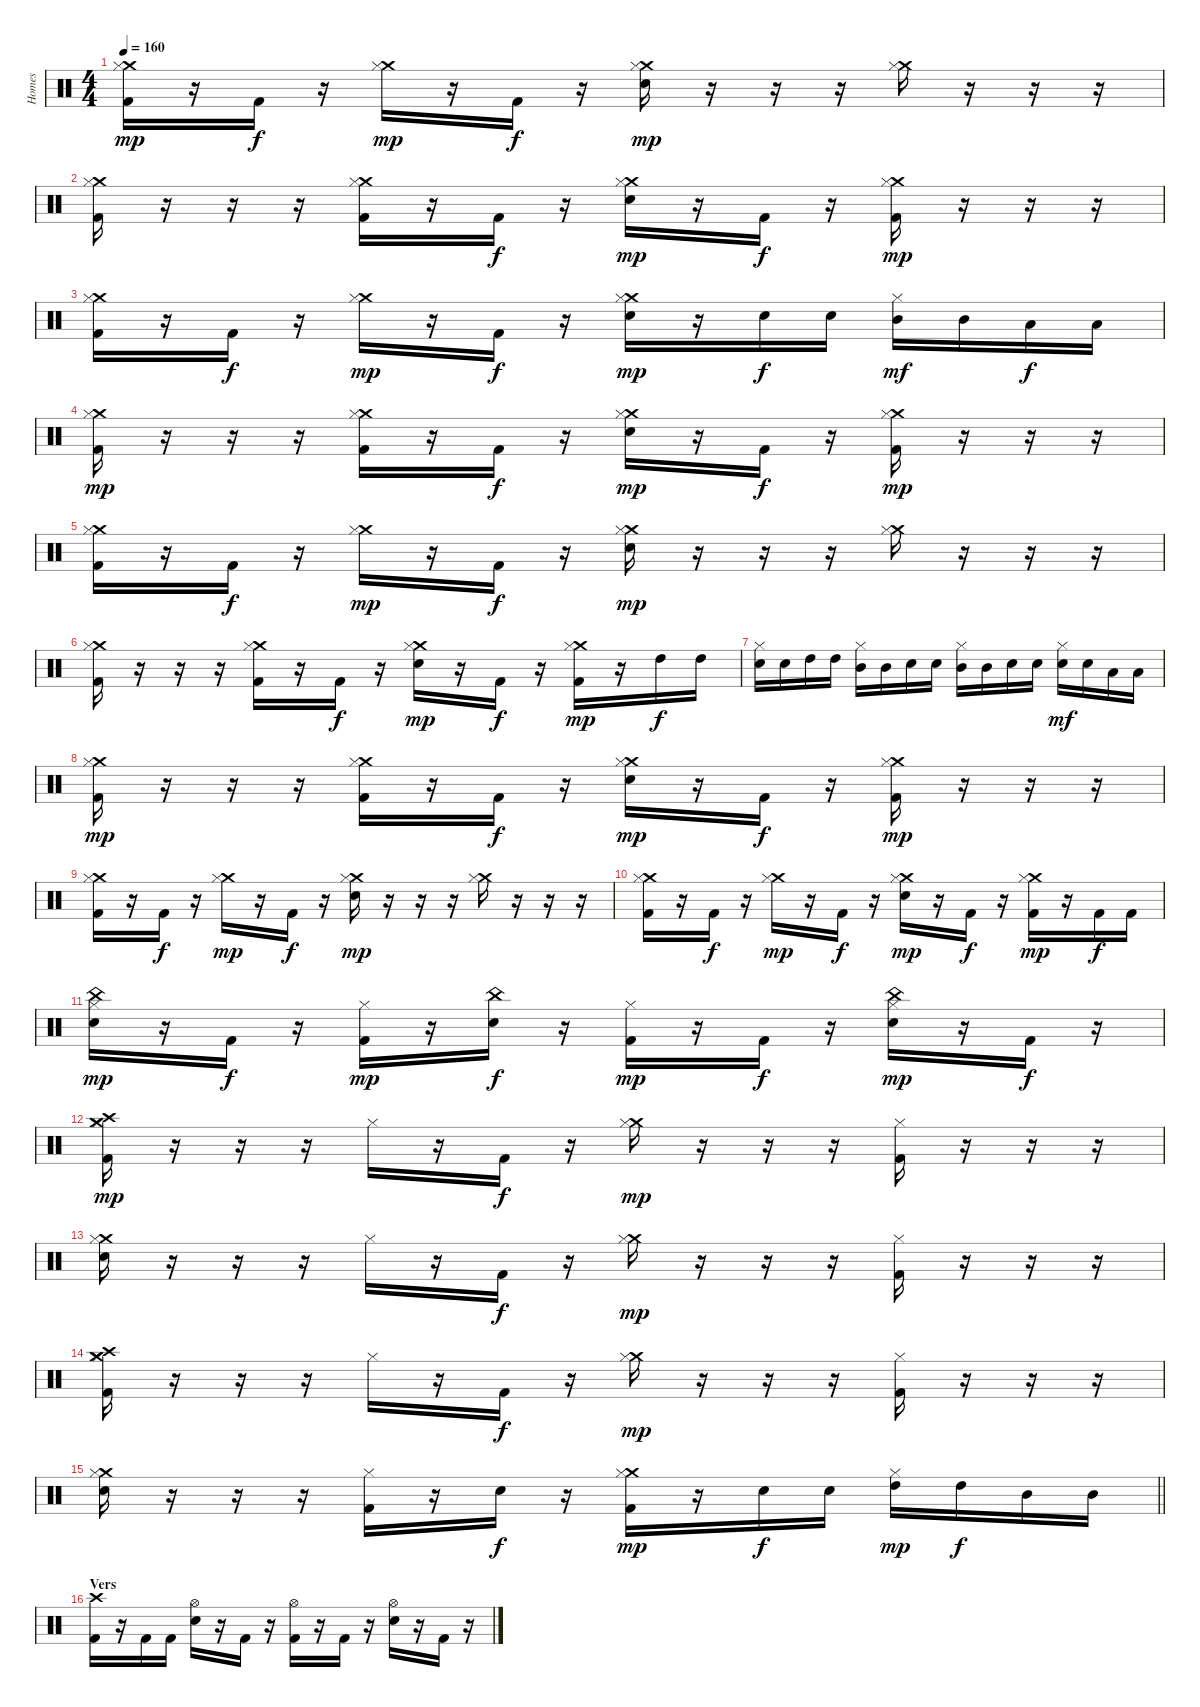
\track ("Homes" "Homes") {instrument percussion}
\staff {score}
\articulation defaults
\ts (4 4)
\tempo 160
\clef neutral
\ks c
("Crash medium (hit)" "Hi-Hat (closed)" "Kick (hit) 2").16{dy mp} r.16 "Kick (hit) 2".16{dy f} r.16 ("Crash medium (hit)" "Hi-Hat (closed)").16{dy mp} r.16 "Kick (hit) 2".16{dy f} r.16 ("Crash medium (hit)" "Hi-Hat (closed)" "Electric Snare (hit)").16{dy mp} r.16 r.16 r.16 ("Crash medium (hit)" "Hi-Hat (closed)").16 r.16 r.16 r.16 |
("Crash medium (hit)" "Hi-Hat (closed)" "Kick (hit) 2").16 r.16 r.16 r.16 ("Crash medium (hit)" "Hi-Hat (closed)" "Kick (hit) 2").16 r.16 "Kick (hit) 2".16{dy f} r.16 ("Crash medium (hit)" "Hi-Hat (closed)" "Electric Snare (hit)").16{dy mp} r.16 "Kick (hit) 2".16{dy f} r.16 ("Crash medium (hit)" "Hi-Hat (closed)" "Kick (hit) 2").16{dy mp} r.16 r.16 r.16 |
("Crash medium (hit)" "Hi-Hat (closed)" "Kick (hit) 2").16 r.16 "Kick (hit) 2".16{dy f} r.16 ("Crash medium (hit)" "Hi-Hat (closed)").16{dy mp} r.16 "Kick (hit) 2".16{dy f} r.16 ("Crash medium (hit)" "Hi-Hat (closed)" "Electric Snare (hit)").16{dy mp} r.16 "Electric Snare (hit)".16{dy f} "Electric Snare (hit)".16 ("Hi-Hat (closed)" "Mid Tom (hit)").16{dy mf} "Mid Tom (hit)".16 "Low Tom (hit)".16{dy f} "Low Tom (hit)".16 |
("Crash medium (hit)" "Hi-Hat (closed)" "Kick (hit) 2").16{dy mp} r.16 r.16 r.16 ("Crash medium (hit)" "Hi-Hat (closed)" "Kick (hit) 2").16 r.16 "Kick (hit) 2".16{dy f} r.16 ("Crash medium (hit)" "Hi-Hat (closed)" "Electric Snare (hit)").16{dy mp} r.16 "Kick (hit) 2".16{dy f} r.16 ("Crash medium (hit)" "Hi-Hat (closed)" "Kick (hit) 2").16{dy mp} r.16 r.16 r.16 |
("Crash medium (hit)" "Hi-Hat (closed)" "Kick (hit) 2").16 r.16 "Kick (hit) 2".16{dy f} r.16 ("Crash medium (hit)" "Hi-Hat (closed)").16{dy mp} r.16 "Kick (hit) 2".16{dy f} r.16 ("Crash medium (hit)" "Hi-Hat (closed)" "Electric Snare (hit)").16{dy mp} r.16 r.16 r.16 ("Crash medium (hit)" "Hi-Hat (closed)").16 r.16 r.16 r.16 |
("Crash medium (hit)" "Hi-Hat (closed)" "Kick (hit) 2").16 r.16 r.16 r.16 ("Crash medium (hit)" "Hi-Hat (closed)" "Kick (hit) 2").16 r.16 "Kick (hit) 2".16{dy f} r.16 ("Crash medium (hit)" "Hi-Hat (closed)" "Electric Snare (hit)").16{dy mp} r.16 "Kick (hit) 2".16{dy f} r.16 ("Crash medium (hit)" "Hi-Hat (closed)" "Kick (hit) 2").16{dy mp} r.16 "High Tom (hit)".16{dy f} "High Tom (hit)".16 |
("Hi-Hat (closed)" "Electric Snare (hit)").16 "Electric Snare (hit)".16 "High Tom (hit)".16 "High Tom (hit)".16 ("Hi-Hat (closed)" "Mid Tom (hit)").16 "Mid Tom (hit)".16 "Electric Snare (hit)".16 "Electric Snare (hit)".16 ("Hi-Hat (closed)" "Mid Tom (hit)").16 "Mid Tom (hit)".16 "Electric Snare (hit)".16 "Electric Snare (hit)".16 ("Hi-Hat (closed)" "Electric Snare (hit)").16{dy mf} "Electric Snare (hit)".16 "Low Tom (hit)".16 "Low Tom (hit)".16 |
("Crash medium (hit)" "Hi-Hat (closed)" "Kick (hit) 2").16{dy mp} r.16 r.16 r.16 ("Crash medium (hit)" "Hi-Hat (closed)" "Kick (hit) 2").16 r.16 "Kick (hit) 2".16{dy f} r.16 ("Crash medium (hit)" "Hi-Hat (closed)" "Electric Snare (hit)").16{dy mp} r.16 "Kick (hit) 2".16{dy f} r.16 ("Crash medium (hit)" "Hi-Hat (closed)" "Kick (hit) 2").16{dy mp} r.16 r.16 r.16 |
("Crash medium (hit)" "Hi-Hat (closed)" "Kick (hit) 2").16 r.16 "Kick (hit) 2".16{dy f} r.16 ("Crash medium (hit)" "Hi-Hat (closed)").16{dy mp} r.16 "Kick (hit) 2".16{dy f} r.16 ("Crash medium (hit)" "Hi-Hat (closed)" "Electric Snare (hit)").16{dy mp} r.16 r.16 r.16 ("Crash medium (hit)" "Hi-Hat (closed)").16 r.16 r.16 r.16 |
("Crash medium (hit)" "Hi-Hat (closed)" "Kick (hit) 2").16 r.16 "Kick (hit) 2".16{dy f} r.16 ("Crash medium (hit)" "Hi-Hat (closed)").16{dy mp} r.16 "Kick (hit) 2".16{dy f} r.16 ("Crash medium (hit)" "Hi-Hat (closed)" "Electric Snare (hit)").16{dy mp} r.16 "Kick (hit) 2".16{dy f} r.16 ("Crash medium (hit)" "Hi-Hat (closed)" "Kick (hit) 2").16{dy mp} r.16 "Kick (hit) 2".16{dy f} "Kick (hit) 2".16 |
("China (hit)" "Hi-Hat (closed)" "Electric Snare (hit)").16{dy mp} r.16 "Kick (hit) 2".16{dy f} r.16 ("Hi-Hat (closed)" "Kick (hit) 2").16{dy mp} r.16 ("China (hit)" "Electric Snare (hit)").16{dy f} r.16 ("Hi-Hat (closed)" "Kick (hit) 2").16{dy mp} r.16 "Kick (hit) 2".16{dy f} r.16 ("China (hit)" "Hi-Hat (closed)" "Electric Snare (hit)").16{dy mp} r.16 "Kick (hit) 2".16{dy f} r.16 |
("Crash medium (hit)" "Crash high (hit)" "Hi-Hat (closed)" "Kick (hit) 2").16{dy mp} r.16 r.16 r.16 "Hi-Hat (closed)".16 r.16 "Kick (hit) 2".16{dy f} r.16 ("Crash medium (hit)" "Hi-Hat (closed)").16{dy mp} r.16 r.16 r.16 ("Hi-Hat (closed)" "Kick (hit) 2").16 r.16 r.16 r.16 |
("Crash medium (hit)" "Hi-Hat (closed)" "Electric Snare (hit)").16 r.16 r.16 r.16 "Hi-Hat (closed)".16 r.16 "Kick (hit) 2".16{dy f} r.16 ("Crash medium (hit)" "Hi-Hat (closed)").16{dy mp} r.16 r.16 r.16 ("Hi-Hat (closed)" "Kick (hit) 2").16 r.16 r.16 r.16 |
("Crash medium (hit)" "Crash high (hit)" "Hi-Hat (closed)" "Kick (hit) 2").16 r.16 r.16 r.16 "Hi-Hat (closed)".16 r.16 "Kick (hit) 2".16{dy f} r.16 ("Crash medium (hit)" "Hi-Hat (closed)").16{dy mp} r.16 r.16 r.16 ("Hi-Hat (closed)" "Kick (hit) 2").16 r.16 r.16 r.16 |
\barLineRight lightlight
("Crash medium (hit)" "Hi-Hat (closed)" "Electric Snare (hit)").16 r.16 r.16 r.16 ("Hi-Hat (closed)" "Kick (hit) 2").16 r.16 "Electric Snare (hit)".16{dy f} r.16 ("Crash medium (hit)" "Hi-Hat (closed)" "Kick (hit) 2").16{dy mp} r.16 "Electric Snare (hit)".16{dy f} "Electric Snare (hit)".16 ("Hi-Hat (closed)" "High Tom (hit)").16{dy mp} "High Tom (hit)".16{dy f} "Mid Tom (hit)".16 "Mid Tom (hit)".16 |
\section ("" "Vers")
("Crash high (hit)" "Kick (hit) 2").16 r.16 "Kick (hit) 2".16 "Kick (hit) 2".16 ("Hi-Hat (open)" "Electric Snare (hit)").16 r.16 "Kick (hit) 2".16 r.16 ("Hi-Hat (open)" "Kick (hit) 2").16 r.16 "Kick (hit) 2".16 r.16 ("Hi-Hat (open)" "Electric Snare (hit)").16 r.16 "Kick (hit) 2".16 r.16
